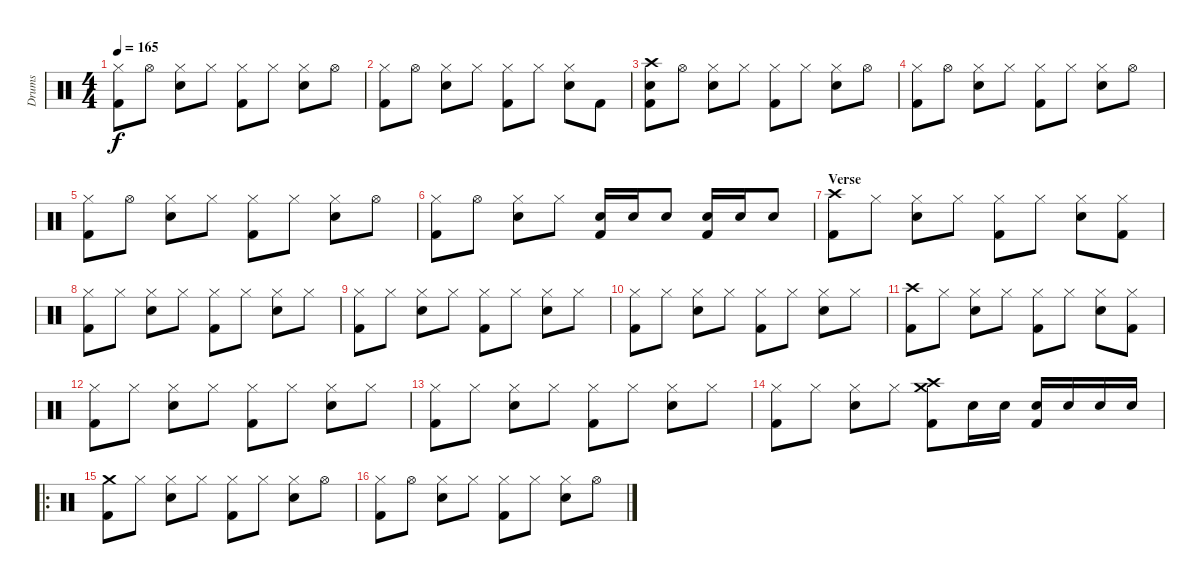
\track ("Drums" "Drums") {instrument percussion}
\staff {score}
\articulation defaults
\ts (4 4)
\tempo 165
\clef neutral
\ks c
("Hi-Hat (closed)" "Kick (hit) 2").8{dy f} "Hi-Hat (open)".8 ("Hi-Hat (closed)" "Snare (hit) 2").8 "Hi-Hat (closed)".8 ("Hi-Hat (closed)" "Kick (hit) 2").8 "Hi-Hat (closed)".8 ("Hi-Hat (closed)" "Snare (hit) 2").8 "Hi-Hat (open)".8 |
("Hi-Hat (closed)" "Kick (hit) 2").8 "Hi-Hat (open)".8 ("Hi-Hat (closed)" "Snare (hit) 2").8 "Hi-Hat (closed)".8 ("Hi-Hat (closed)" "Kick (hit) 2").8 "Hi-Hat (closed)".8 ("Hi-Hat (closed)" "Snare (hit) 2").8 "Kick (hit) 2".8 |
("Crash high (hit)" "Snare (hit) 2" "Kick (hit) 2").8 "Hi-Hat (open)".8 ("Hi-Hat (closed)" "Snare (hit) 2").8 "Hi-Hat (closed)".8 ("Hi-Hat (closed)" "Kick (hit) 2").8 "Hi-Hat (closed)".8 ("Hi-Hat (closed)" "Snare (hit) 2").8 "Hi-Hat (open)".8 |
("Hi-Hat (closed)" "Kick (hit) 2").8 "Hi-Hat (open)".8 ("Hi-Hat (closed)" "Snare (hit) 2").8 "Hi-Hat (closed)".8 ("Hi-Hat (closed)" "Kick (hit) 2").8 "Hi-Hat (closed)".8 ("Hi-Hat (closed)" "Snare (hit) 2").8 "Hi-Hat (open)".8 |
("Hi-Hat (closed)" "Kick (hit) 2").8 "Hi-Hat (open)".8 ("Hi-Hat (closed)" "Snare (hit) 2").8 "Hi-Hat (closed)".8 ("Hi-Hat (closed)" "Kick (hit) 2").8 "Hi-Hat (closed)".8 ("Hi-Hat (closed)" "Snare (hit) 2").8 "Hi-Hat (open)".8 |
("Hi-Hat (closed)" "Kick (hit) 2").8 "Hi-Hat (open)".8 ("Hi-Hat (closed)" "Snare (hit) 2").8 "Hi-Hat (closed)".8 ("Snare (hit) 2" "Kick (hit) 2").16 "Snare (hit) 2".16 "Snare (hit) 2".8 ("Snare (hit) 2" "Kick (hit) 2").16 "Snare (hit) 2".16 "Snare (hit) 2".8 |
\section ("" "Verse")
("Crash high (hit)" "Kick (hit) 2").8 "Hi-Hat (closed)".8 ("Hi-Hat (closed)" "Snare (hit) 2").8 "Hi-Hat (closed)".8 ("Hi-Hat (closed)" "Kick (hit) 2").8 "Hi-Hat (closed)".8 ("Hi-Hat (closed)" "Snare (hit) 2").8 ("Hi-Hat (closed)" "Kick (hit) 2").8 |
("Hi-Hat (closed)" "Kick (hit) 2").8 "Hi-Hat (closed)".8 ("Hi-Hat (closed)" "Snare (hit) 2").8 "Hi-Hat (closed)".8 ("Hi-Hat (closed)" "Kick (hit) 2").8 "Hi-Hat (closed)".8 ("Hi-Hat (closed)" "Snare (hit) 2").8 "Hi-Hat (closed)".8 |
("Hi-Hat (closed)" "Kick (hit) 2").8 "Hi-Hat (closed)".8 ("Hi-Hat (closed)" "Snare (hit) 2").8 "Hi-Hat (closed)".8 ("Hi-Hat (closed)" "Kick (hit) 2").8 "Hi-Hat (closed)".8 ("Hi-Hat (closed)" "Snare (hit) 2").8 "Hi-Hat (closed)".8 |
("Hi-Hat (closed)" "Kick (hit) 2").8 "Hi-Hat (closed)".8 ("Hi-Hat (closed)" "Snare (hit) 2").8 "Hi-Hat (closed)".8 ("Hi-Hat (closed)" "Kick (hit) 2").8 "Hi-Hat (closed)".8 ("Hi-Hat (closed)" "Snare (hit) 2").8 "Hi-Hat (closed)".8 |
("Crash high (hit)" "Kick (hit) 2").8 "Hi-Hat (closed)".8 ("Hi-Hat (closed)" "Snare (hit) 2").8 "Hi-Hat (closed)".8 ("Hi-Hat (closed)" "Kick (hit) 2").8 "Hi-Hat (closed)".8 ("Hi-Hat (closed)" "Snare (hit) 2").8 ("Hi-Hat (closed)" "Kick (hit) 2").8 |
("Hi-Hat (closed)" "Kick (hit) 2").8 "Hi-Hat (closed)".8 ("Hi-Hat (closed)" "Snare (hit) 2").8 "Hi-Hat (closed)".8 ("Hi-Hat (closed)" "Kick (hit) 2").8 "Hi-Hat (closed)".8 ("Hi-Hat (closed)" "Snare (hit) 2").8 "Hi-Hat (closed)".8 |
("Hi-Hat (closed)" "Kick (hit) 2").8 "Hi-Hat (closed)".8 ("Hi-Hat (closed)" "Snare (hit) 2").8 "Hi-Hat (closed)".8 ("Hi-Hat (closed)" "Kick (hit) 2").8 "Hi-Hat (closed)".8 ("Hi-Hat (closed)" "Snare (hit) 2").8 "Hi-Hat (closed)".8 |
("Hi-Hat (closed)" "Kick (hit) 2").8 "Hi-Hat (closed)".8 ("Hi-Hat (closed)" "Snare (hit) 2").8 "Hi-Hat (closed)".8 ("Crash medium (hit)" "Crash high (hit)" "Kick (hit) 2").8 "Snare (hit) 2".16 "Snare (hit) 2".16 ("Snare (hit) 2" "Kick (hit) 2").16 "Snare (hit) 2".16 "Snare (hit) 2".16 "Snare (hit) 2".16 |
\ro
("Crash medium (hit)" "Kick (hit) 2").8 "Hi-Hat (closed)".8 ("Hi-Hat (closed)" "Snare (hit) 2").8 "Hi-Hat (closed)".8 ("Hi-Hat (closed)" "Kick (hit) 2").8 "Hi-Hat (closed)".8 ("Hi-Hat (closed)" "Snare (hit) 2").8 "Hi-Hat (open)".8 |
("Hi-Hat (closed)" "Kick (hit) 2").8 "Hi-Hat (open)".8 ("Hi-Hat (closed)" "Snare (hit) 2").8 "Hi-Hat (closed)".8 ("Hi-Hat (closed)" "Kick (hit) 2").8 "Hi-Hat (closed)".8 ("Hi-Hat (closed)" "Snare (hit) 2").8 "Hi-Hat (open)".8
